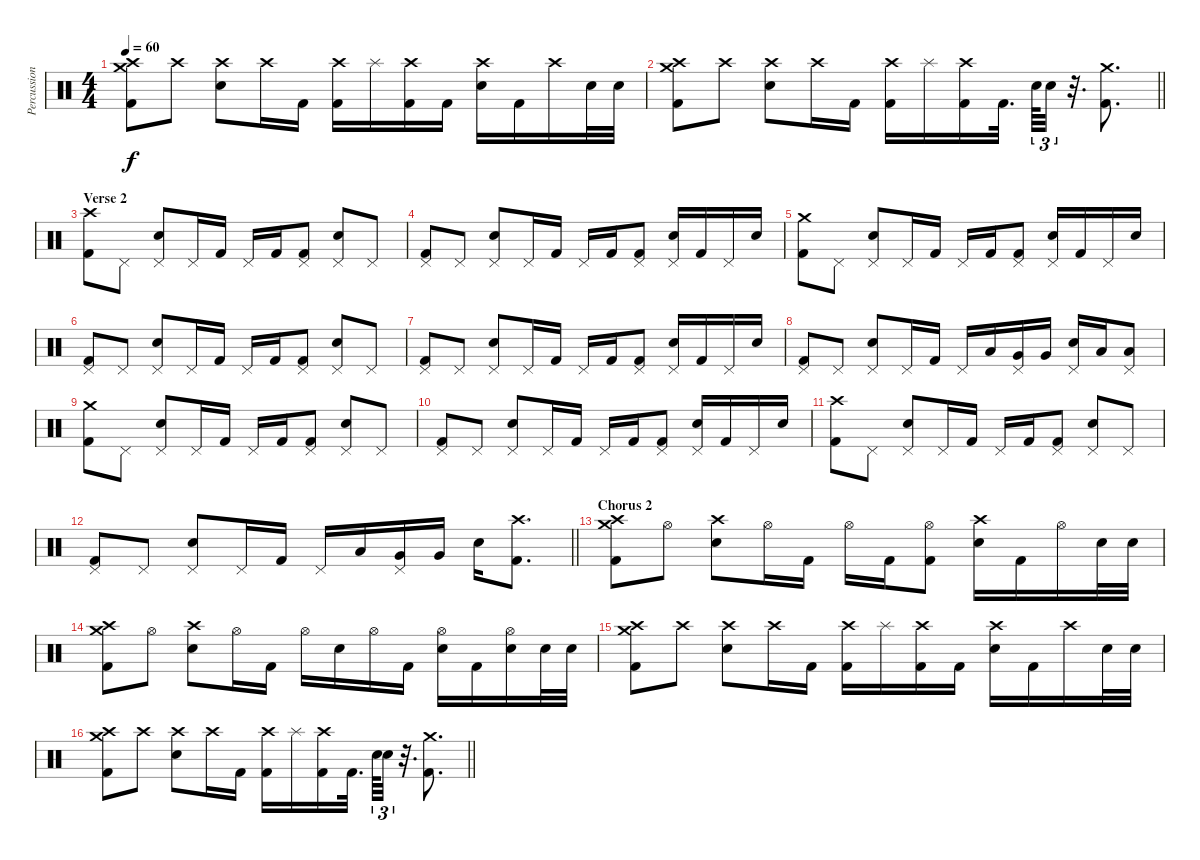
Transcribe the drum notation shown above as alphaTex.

\track ("Percussion" "Percussion") {instrument percussion}
\staff {score}
\articulation defaults
\ts (4 4)
\tempo 60
\clef neutral
\ks c
("Crash medium (hit)" "Crash high (hit)" "Kick (hit) 2").8{dy f} "Crash high (hit)".8 ("Crash high (hit)" "Electric Snare (hit)").8 "Crash high (hit)".16 "Kick (hit) 2".16 ("Crash high (hit)" "Kick (hit) 2").16 "Splash (hit)".16 ("Crash high (hit)" "Kick (hit) 2").16 "Kick (hit) 2".16 ("Crash high (hit)" "Electric Snare (hit)").16 "Kick (hit) 2".16 "Crash high (hit)".16 "Electric Snare (hit)".32 "Electric Snare (hit)".32 |
\barLineRight lightlight
("Crash medium (hit)" "Crash high (hit)" "Kick (hit) 2").8 "Crash high (hit)".8 ("Crash high (hit)" "Electric Snare (hit)").8 "Crash high (hit)".16 "Kick (hit) 2".16 ("Crash high (hit)" "Kick (hit) 2").16 "Splash (hit)".16 ("Crash high (hit)" "Kick (hit) 2").16 "Kick (hit) 2".32{d beam splitsecondary} "Electric Snare (hit)".64{tu (3 2)} "Electric Snare (hit)".32{tu (3 2)} r.32{d} ("Crash medium (hit)" "Kick (hit) 2").8{d} |
\section ("" "Verse 2")
("Crash high (hit)" "Kick (hit) 2").8 "Pedal Hi-Hat (hit)".8 ("Pedal Hi-Hat (hit)" "Electric Snare (hit)").8 "Pedal Hi-Hat (hit)".16 "Kick (hit) 2".16 "Pedal Hi-Hat (hit)".16 "Kick (hit) 2".16 ("Pedal Hi-Hat (hit)" "Kick (hit) 2").8 ("Pedal Hi-Hat (hit)" "Electric Snare (hit)").8 "Pedal Hi-Hat (hit)".8 |
("Pedal Hi-Hat (hit)" "Kick (hit) 2").8 "Pedal Hi-Hat (hit)".8 ("Pedal Hi-Hat (hit)" "Electric Snare (hit)").8 "Pedal Hi-Hat (hit)".16 "Kick (hit) 2".16 "Pedal Hi-Hat (hit)".16 "Kick (hit) 2".16 ("Pedal Hi-Hat (hit)" "Kick (hit) 2").8 ("Pedal Hi-Hat (hit)" "Electric Snare (hit)").16 "Kick (hit) 2".16 "Pedal Hi-Hat (hit)".16 "Electric Snare (hit)".16 |
("Crash medium (hit)" "Kick (hit) 2").8 "Pedal Hi-Hat (hit)".8 ("Pedal Hi-Hat (hit)" "Electric Snare (hit)").8 "Pedal Hi-Hat (hit)".16 "Kick (hit) 2".16 "Pedal Hi-Hat (hit)".16 "Kick (hit) 2".16 ("Pedal Hi-Hat (hit)" "Kick (hit) 2").8 ("Pedal Hi-Hat (hit)" "Electric Snare (hit)").16 "Kick (hit) 2".16 "Pedal Hi-Hat (hit)".16 "Electric Snare (hit)".16 |
("Pedal Hi-Hat (hit)" "Kick (hit) 2").8 "Pedal Hi-Hat (hit)".8 ("Pedal Hi-Hat (hit)" "Electric Snare (hit)").8 "Pedal Hi-Hat (hit)".16 "Kick (hit) 2".16 "Pedal Hi-Hat (hit)".16 "Kick (hit) 2".16 ("Pedal Hi-Hat (hit)" "Kick (hit) 2").8 ("Pedal Hi-Hat (hit)" "Electric Snare (hit)").8 "Pedal Hi-Hat (hit)".8 |
("Pedal Hi-Hat (hit)" "Kick (hit) 2").8 "Pedal Hi-Hat (hit)".8 ("Pedal Hi-Hat (hit)" "Electric Snare (hit)").8 "Pedal Hi-Hat (hit)".16 "Kick (hit) 2".16 "Pedal Hi-Hat (hit)".16 "Kick (hit) 2".16 ("Pedal Hi-Hat (hit)" "Kick (hit) 2").8 ("Pedal Hi-Hat (hit)" "Electric Snare (hit)").16 "Kick (hit) 2".16 "Pedal Hi-Hat (hit)".16 "Electric Snare (hit)".16 |
("Pedal Hi-Hat (hit)" "Kick (hit) 2").8 "Pedal Hi-Hat (hit)".8 ("Pedal Hi-Hat (hit)" "Electric Snare (hit)").8 "Pedal Hi-Hat (hit)".16 "Kick (hit) 2".16 "Pedal Hi-Hat (hit)".16 "Low Tom (hit)".16 ("Pedal Hi-Hat (hit)" "Very Low Tom (hit)").16 "Very Low Tom (hit)".16 ("Pedal Hi-Hat (hit)" "Electric Snare (hit)").16 "Low Tom (hit)".16 ("Pedal Hi-Hat (hit)" "Low Tom (hit)").8 |
("Crash medium (hit)" "Kick (hit) 2").8 "Pedal Hi-Hat (hit)".8 ("Pedal Hi-Hat (hit)" "Electric Snare (hit)").8 "Pedal Hi-Hat (hit)".16 "Kick (hit) 2".16 "Pedal Hi-Hat (hit)".16 "Kick (hit) 2".16 ("Pedal Hi-Hat (hit)" "Kick (hit) 2").8 ("Pedal Hi-Hat (hit)" "Electric Snare (hit)").8 "Pedal Hi-Hat (hit)".8 |
("Pedal Hi-Hat (hit)" "Kick (hit) 2").8 "Pedal Hi-Hat (hit)".8 ("Pedal Hi-Hat (hit)" "Electric Snare (hit)").8 "Pedal Hi-Hat (hit)".16 "Kick (hit) 2".16 "Pedal Hi-Hat (hit)".16 "Kick (hit) 2".16 ("Pedal Hi-Hat (hit)" "Kick (hit) 2").8 ("Pedal Hi-Hat (hit)" "Electric Snare (hit)").16 "Kick (hit) 2".16 "Pedal Hi-Hat (hit)".16 "Electric Snare (hit)".16 |
("Crash high (hit)" "Kick (hit) 2").8 "Pedal Hi-Hat (hit)".8 ("Pedal Hi-Hat (hit)" "Electric Snare (hit)").8 "Pedal Hi-Hat (hit)".16 "Kick (hit) 2".16 "Pedal Hi-Hat (hit)".16 "Kick (hit) 2".16 ("Pedal Hi-Hat (hit)" "Kick (hit) 2").8 ("Pedal Hi-Hat (hit)" "Electric Snare (hit)").8 "Pedal Hi-Hat (hit)".8 |
\barLineRight lightlight
("Pedal Hi-Hat (hit)" "Kick (hit) 2").8 "Pedal Hi-Hat (hit)".8 ("Pedal Hi-Hat (hit)" "Electric Snare (hit)").8 "Pedal Hi-Hat (hit)".16 "Kick (hit) 2".16 "Pedal Hi-Hat (hit)".16 "Low Tom (hit)".16 ("Pedal Hi-Hat (hit)" "Very Low Tom (hit)").16 "Very Low Tom (hit)".16 "Electric Snare (hit)".16 ("Crash high (hit)" "Kick (hit) 2").8{d} |
\section ("" "Chorus 2")
("Crash medium (hit)" "Crash high (hit)" "Kick (hit) 2").8 "Hi-Hat (open)".8 ("Crash high (hit)" "Electric Snare (hit)").8 "Hi-Hat (open)".16 "Kick (hit) 2".16 "Hi-Hat (open)".16 "Kick (hit) 2".16 ("Hi-Hat (open)" "Kick (hit) 2").8 ("Crash high (hit)" "Electric Snare (hit)").16 "Kick (hit) 2".16 "Hi-Hat (open)".16 "Electric Snare (hit)".32 "Electric Snare (hit)".32 |
("Crash medium (hit)" "Crash high (hit)" "Kick (hit) 2").8 "Hi-Hat (open)".8 ("Crash high (hit)" "Electric Snare (hit)").8 "Hi-Hat (open)".16 "Kick (hit) 2".16 "Hi-Hat (open)".16 "Electric Snare (hit)".16 "Hi-Hat (open)".16 "Kick (hit) 2".16 ("Hi-Hat (open)" "Electric Snare (hit)").16 "Kick (hit) 2".16 ("Hi-Hat (open)" "Electric Snare (hit)").16 "Electric Snare (hit)".32 "Electric Snare (hit)".32 |
("Crash medium (hit)" "Crash high (hit)" "Kick (hit) 2").8 "Crash high (hit)".8 ("Crash high (hit)" "Electric Snare (hit)").8 "Crash high (hit)".16 "Kick (hit) 2".16 ("Crash high (hit)" "Kick (hit) 2").16 "Splash (hit)".16 ("Crash high (hit)" "Kick (hit) 2").16 "Kick (hit) 2".16 ("Crash high (hit)" "Electric Snare (hit)").16 "Kick (hit) 2".16 "Crash high (hit)".16 "Electric Snare (hit)".32 "Electric Snare (hit)".32 |
\barLineRight lightlight
("Crash medium (hit)" "Crash high (hit)" "Kick (hit) 2").8 "Crash high (hit)".8 ("Crash high (hit)" "Electric Snare (hit)").8 "Crash high (hit)".16 "Kick (hit) 2".16 ("Crash high (hit)" "Kick (hit) 2").16 "Splash (hit)".16 ("Crash high (hit)" "Kick (hit) 2").16 "Kick (hit) 2".32{d beam splitsecondary} "Electric Snare (hit)".64{tu (3 2)} "Electric Snare (hit)".32{tu (3 2)} r.32{d} ("Crash medium (hit)" "Kick (hit) 2").8{d}
